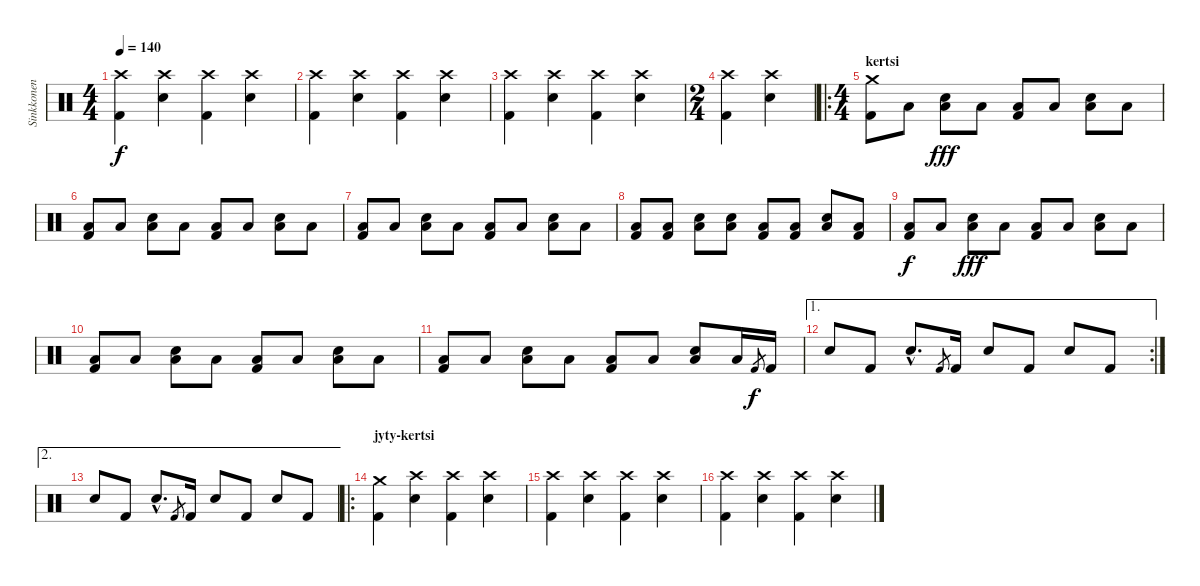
\track ("Sinkkonen" "Sinkkonen") {instrument percussion}
\staff {score}
\articulation defaults
\ts (4 4)
\tempo 140
\clef neutral
\ks c
("Kick (hit) 2" "Crash high (hit)").4{dy f} ("Crash high (hit)" "Snare (hit) 2").4 ("Kick (hit) 2" "Crash high (hit)").4 ("Crash high (hit)" "Snare (hit) 2").4 |
("Kick (hit) 2" "Crash high (hit)").4 ("Crash high (hit)" "Snare (hit) 2").4 ("Kick (hit) 2" "Crash high (hit)").4 ("Crash high (hit)" "Snare (hit) 2").4 |
("Kick (hit) 2" "Crash high (hit)").4 ("Crash high (hit)" "Snare (hit) 2").4 ("Kick (hit) 2" "Crash high (hit)").4 ("Crash high (hit)" "Snare (hit) 2").4 |
\ts (2 4)
("Kick (hit) 2" "Crash high (hit)").4 ("Crash high (hit)" "Snare (hit) 2").4 |
\ro
\ts (4 4)
\section ("" "kertsi")
("Kick (hit) 2" "Crash medium (hit)").8 "Low Floor Tom (hit)".8 ("Low Floor Tom (hit)" "Snare (hit) 2").8{dy fff} "Low Floor Tom (hit)".8 ("Kick (hit) 2" "Low Floor Tom (hit)").8 "Low Floor Tom (hit)".8 ("Low Floor Tom (hit)" "Snare (hit) 2").8 "Low Floor Tom (hit)".8 |
("Kick (hit) 2" "Low Floor Tom (hit)").8 "Low Floor Tom (hit)".8 ("Low Floor Tom (hit)" "Snare (hit) 2").8 "Low Floor Tom (hit)".8 ("Kick (hit) 2" "Low Floor Tom (hit)").8 "Low Floor Tom (hit)".8 ("Low Floor Tom (hit)" "Snare (hit) 2").8 "Low Floor Tom (hit)".8 |
("Kick (hit) 2" "Low Floor Tom (hit)").8 "Low Floor Tom (hit)".8 ("Low Floor Tom (hit)" "Snare (hit) 2").8 "Low Floor Tom (hit)".8 ("Kick (hit) 2" "Low Floor Tom (hit)").8 "Low Floor Tom (hit)".8 ("Low Floor Tom (hit)" "Snare (hit) 2").8 "Low Floor Tom (hit)".8 |
("Kick (hit) 2" "Low Floor Tom (hit)").8 ("Kick (hit) 2" "Low Floor Tom (hit)").8 ("Low Floor Tom (hit)" "Snare (hit) 2").8 ("Low Floor Tom (hit)" "Snare (hit) 2").8 ("Kick (hit) 2" "Low Floor Tom (hit)").8 ("Kick (hit) 2" "Low Floor Tom (hit)").8 ("Low Floor Tom (hit)" "Snare (hit) 2").8 ("Kick (hit) 2" "Low Floor Tom (hit)").8 |
("Kick (hit) 2" "Low Floor Tom (hit)").8{dy f} "Low Floor Tom (hit)".8 ("Low Floor Tom (hit)" "Snare (hit) 2").8{dy fff} "Low Floor Tom (hit)".8 ("Kick (hit) 2" "Low Floor Tom (hit)").8 "Low Floor Tom (hit)".8 ("Low Floor Tom (hit)" "Snare (hit) 2").8 "Low Floor Tom (hit)".8 |
("Kick (hit) 2" "Low Floor Tom (hit)").8 "Low Floor Tom (hit)".8 ("Low Floor Tom (hit)" "Snare (hit) 2").8 "Low Floor Tom (hit)".8 ("Kick (hit) 2" "Low Floor Tom (hit)").8 "Low Floor Tom (hit)".8 ("Low Floor Tom (hit)" "Snare (hit) 2").8 "Low Floor Tom (hit)".8 |
("Kick (hit) 2" "Low Floor Tom (hit)").8 "Low Floor Tom (hit)".8 ("Low Floor Tom (hit)" "Snare (hit) 2").8 "Low Floor Tom (hit)".8 ("Kick (hit) 2" "Low Floor Tom (hit)").8 "Low Floor Tom (hit)".8 ("Low Floor Tom (hit)" "Snare (hit) 2").8 "Low Floor Tom (hit)".16 "Kick (hit) 2".8{gr dy f} "Kick (hit) 2".16 |
\ae 1
\rc 2 "Snare (hit) 2".8 "Kick (hit) 2".8 "Snare (hit) 2"{hac}.8{d} "Kick (hit) 2".8{gr} "Kick (hit) 2".16 "Snare (hit) 2".8 "Kick (hit) 2".8 "Snare (hit) 2".8 "Kick (hit) 2".8
|
\ae 2 "Snare (hit) 2".8 "Kick (hit) 2".8 "Snare (hit) 2"{hac}.8{d} "Kick (hit) 2".8{gr} "Kick (hit) 2".16 "Snare (hit) 2".8 "Kick (hit) 2".8 "Snare (hit) 2".8 "Kick (hit) 2".8
|
\ro
\section ("" "jyty-kertsi")
("Kick (hit) 2" "Crash medium (hit)").4 ("Crash high (hit)" "Snare (hit) 2").4 ("Kick (hit) 2" "Crash high (hit)").4 ("Crash high (hit)" "Snare (hit) 2").4 |
("Kick (hit) 2" "Crash high (hit)").4 ("Crash high (hit)" "Snare (hit) 2").4 ("Kick (hit) 2" "Crash high (hit)").4 ("Crash high (hit)" "Snare (hit) 2").4 |
("Kick (hit) 2" "Crash high (hit)").4 ("Crash high (hit)" "Snare (hit) 2").4 ("Kick (hit) 2" "Crash high (hit)").4 ("Crash high (hit)" "Snare (hit) 2").4
